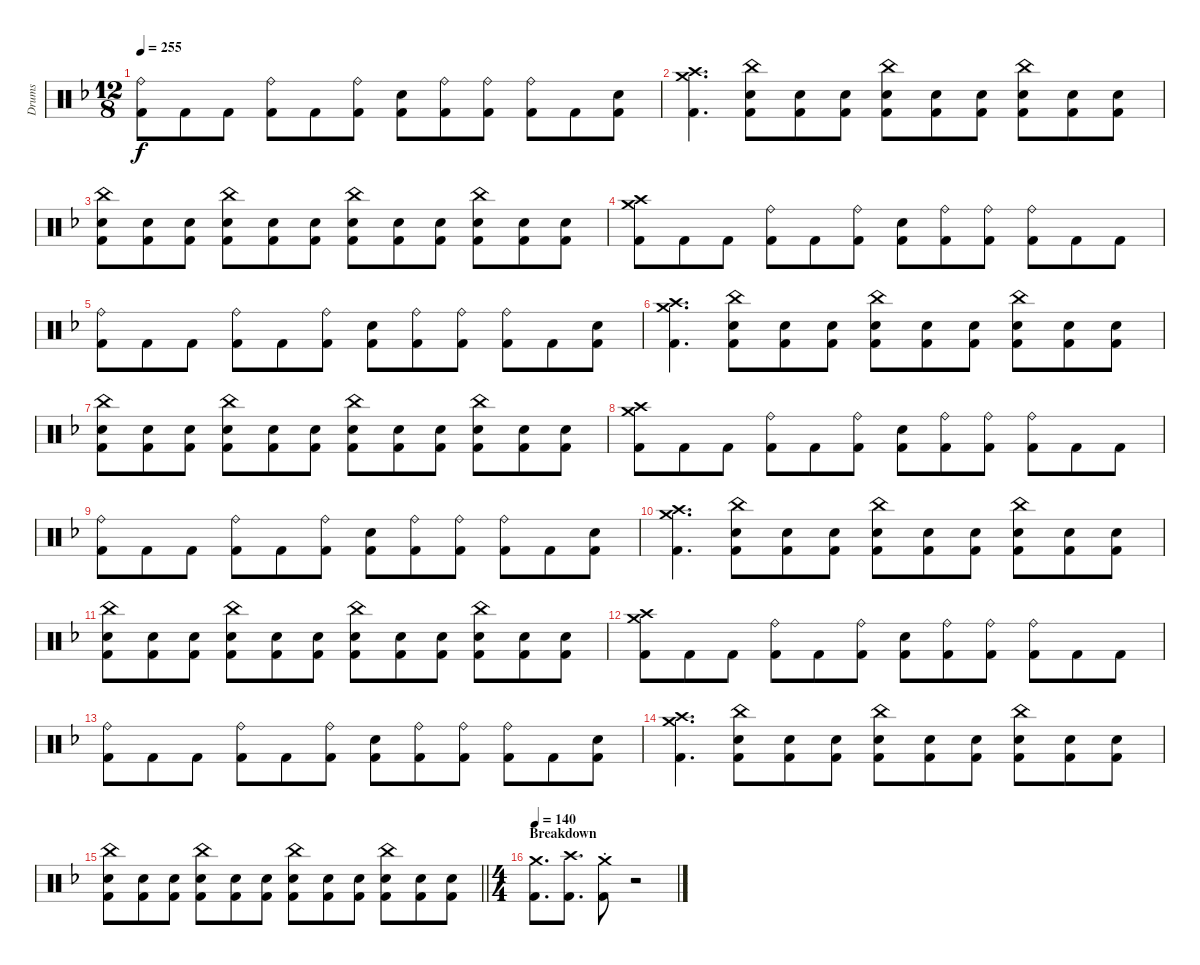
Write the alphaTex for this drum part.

\track ("Drums" "Drums") {instrument percussion}
\staff {score}
\articulation defaults
\ts (12 8)
\tempo 255
\clef neutral
\ks dminor
("Ride (bell)" "Kick (hit) 2").8{dy f} "Kick (hit) 2".8 "Kick (hit) 2".8 ("Ride (bell)" "Kick (hit) 2").8 "Kick (hit) 2".8 ("Ride (bell)" "Kick (hit) 2").8 ("Electric Snare (hit)" "Kick (hit) 2").8 ("Ride (bell)" "Kick (hit) 2").8 ("Ride (bell)" "Kick (hit) 2").8 ("Ride (bell)" "Kick (hit) 2").8 "Kick (hit) 2".8 ("Electric Snare (hit)" "Kick (hit) 2").8 |
("Crash medium (hit)" "Crash high (hit)" "Kick (hit) 2").4{d} ("China (hit)" "Electric Snare (hit)" "Kick (hit) 2").8 ("Electric Snare (hit)" "Kick (hit) 2").8 ("Electric Snare (hit)" "Kick (hit) 2").8 ("China (hit)" "Electric Snare (hit)" "Kick (hit) 2").8 ("Electric Snare (hit)" "Kick (hit) 2").8 ("Electric Snare (hit)" "Kick (hit) 2").8 ("China (hit)" "Electric Snare (hit)" "Kick (hit) 2").8 ("Electric Snare (hit)" "Kick (hit) 2").8 ("Electric Snare (hit)" "Kick (hit) 2").8 |
("China (hit)" "Electric Snare (hit)" "Kick (hit) 2").8 ("Electric Snare (hit)" "Kick (hit) 2").8 ("Electric Snare (hit)" "Kick (hit) 2").8 ("China (hit)" "Electric Snare (hit)" "Kick (hit) 2").8 ("Electric Snare (hit)" "Kick (hit) 2").8 ("Electric Snare (hit)" "Kick (hit) 2").8 ("China (hit)" "Electric Snare (hit)" "Kick (hit) 2").8 ("Electric Snare (hit)" "Kick (hit) 2").8 ("Electric Snare (hit)" "Kick (hit) 2").8 ("China (hit)" "Electric Snare (hit)" "Kick (hit) 2").8 ("Electric Snare (hit)" "Kick (hit) 2").8 ("Electric Snare (hit)" "Kick (hit) 2").8 |
("Crash medium (hit)" "Crash high (hit)" "Kick (hit) 2").8 "Kick (hit) 2".8 "Kick (hit) 2".8 ("Ride (bell)" "Kick (hit) 2").8 "Kick (hit) 2".8 ("Ride (bell)" "Kick (hit) 2").8 ("Electric Snare (hit)" "Kick (hit) 2").8 ("Ride (bell)" "Kick (hit) 2").8 ("Ride (bell)" "Kick (hit) 2").8 ("Ride (bell)" "Kick (hit) 2").8 "Kick (hit) 2".8 "Kick (hit) 2".8 |
("Ride (bell)" "Kick (hit) 2").8 "Kick (hit) 2".8 "Kick (hit) 2".8 ("Ride (bell)" "Kick (hit) 2").8 "Kick (hit) 2".8 ("Ride (bell)" "Kick (hit) 2").8 ("Electric Snare (hit)" "Kick (hit) 2").8 ("Ride (bell)" "Kick (hit) 2").8 ("Ride (bell)" "Kick (hit) 2").8 ("Ride (bell)" "Kick (hit) 2").8 "Kick (hit) 2".8 ("Electric Snare (hit)" "Kick (hit) 2").8 |
("Crash medium (hit)" "Crash high (hit)" "Kick (hit) 2").4{d} ("China (hit)" "Electric Snare (hit)" "Kick (hit) 2").8 ("Electric Snare (hit)" "Kick (hit) 2").8 ("Electric Snare (hit)" "Kick (hit) 2").8 ("China (hit)" "Electric Snare (hit)" "Kick (hit) 2").8 ("Electric Snare (hit)" "Kick (hit) 2").8 ("Electric Snare (hit)" "Kick (hit) 2").8 ("China (hit)" "Electric Snare (hit)" "Kick (hit) 2").8 ("Electric Snare (hit)" "Kick (hit) 2").8 ("Electric Snare (hit)" "Kick (hit) 2").8 |
("China (hit)" "Electric Snare (hit)" "Kick (hit) 2").8 ("Electric Snare (hit)" "Kick (hit) 2").8 ("Electric Snare (hit)" "Kick (hit) 2").8 ("China (hit)" "Electric Snare (hit)" "Kick (hit) 2").8 ("Electric Snare (hit)" "Kick (hit) 2").8 ("Electric Snare (hit)" "Kick (hit) 2").8 ("China (hit)" "Electric Snare (hit)" "Kick (hit) 2").8 ("Electric Snare (hit)" "Kick (hit) 2").8 ("Electric Snare (hit)" "Kick (hit) 2").8 ("China (hit)" "Electric Snare (hit)" "Kick (hit) 2").8 ("Electric Snare (hit)" "Kick (hit) 2").8 ("Electric Snare (hit)" "Kick (hit) 2").8 |
("Crash medium (hit)" "Crash high (hit)" "Kick (hit) 2").8 "Kick (hit) 2".8 "Kick (hit) 2".8 ("Ride (bell)" "Kick (hit) 2").8 "Kick (hit) 2".8 ("Ride (bell)" "Kick (hit) 2").8 ("Electric Snare (hit)" "Kick (hit) 2").8 ("Ride (bell)" "Kick (hit) 2").8 ("Ride (bell)" "Kick (hit) 2").8 ("Ride (bell)" "Kick (hit) 2").8 "Kick (hit) 2".8 "Kick (hit) 2".8 |
("Ride (bell)" "Kick (hit) 2").8 "Kick (hit) 2".8 "Kick (hit) 2".8 ("Ride (bell)" "Kick (hit) 2").8 "Kick (hit) 2".8 ("Ride (bell)" "Kick (hit) 2").8 ("Electric Snare (hit)" "Kick (hit) 2").8 ("Ride (bell)" "Kick (hit) 2").8 ("Ride (bell)" "Kick (hit) 2").8 ("Ride (bell)" "Kick (hit) 2").8 "Kick (hit) 2".8 ("Electric Snare (hit)" "Kick (hit) 2").8 |
("Crash medium (hit)" "Crash high (hit)" "Kick (hit) 2").4{d} ("China (hit)" "Electric Snare (hit)" "Kick (hit) 2").8 ("Electric Snare (hit)" "Kick (hit) 2").8 ("Electric Snare (hit)" "Kick (hit) 2").8 ("China (hit)" "Electric Snare (hit)" "Kick (hit) 2").8 ("Electric Snare (hit)" "Kick (hit) 2").8 ("Electric Snare (hit)" "Kick (hit) 2").8 ("China (hit)" "Electric Snare (hit)" "Kick (hit) 2").8 ("Electric Snare (hit)" "Kick (hit) 2").8 ("Electric Snare (hit)" "Kick (hit) 2").8 |
("China (hit)" "Electric Snare (hit)" "Kick (hit) 2").8 ("Electric Snare (hit)" "Kick (hit) 2").8 ("Electric Snare (hit)" "Kick (hit) 2").8 ("China (hit)" "Electric Snare (hit)" "Kick (hit) 2").8 ("Electric Snare (hit)" "Kick (hit) 2").8 ("Electric Snare (hit)" "Kick (hit) 2").8 ("China (hit)" "Electric Snare (hit)" "Kick (hit) 2").8 ("Electric Snare (hit)" "Kick (hit) 2").8 ("Electric Snare (hit)" "Kick (hit) 2").8 ("China (hit)" "Electric Snare (hit)" "Kick (hit) 2").8 ("Electric Snare (hit)" "Kick (hit) 2").8 ("Electric Snare (hit)" "Kick (hit) 2").8 |
("Crash medium (hit)" "Crash high (hit)" "Kick (hit) 2").8 "Kick (hit) 2".8 "Kick (hit) 2".8 ("Ride (bell)" "Kick (hit) 2").8 "Kick (hit) 2".8 ("Ride (bell)" "Kick (hit) 2").8 ("Electric Snare (hit)" "Kick (hit) 2").8 ("Ride (bell)" "Kick (hit) 2").8 ("Ride (bell)" "Kick (hit) 2").8 ("Ride (bell)" "Kick (hit) 2").8 "Kick (hit) 2".8 "Kick (hit) 2".8 |
("Ride (bell)" "Kick (hit) 2").8 "Kick (hit) 2".8 "Kick (hit) 2".8 ("Ride (bell)" "Kick (hit) 2").8 "Kick (hit) 2".8 ("Ride (bell)" "Kick (hit) 2").8 ("Electric Snare (hit)" "Kick (hit) 2").8 ("Ride (bell)" "Kick (hit) 2").8 ("Ride (bell)" "Kick (hit) 2").8 ("Ride (bell)" "Kick (hit) 2").8 "Kick (hit) 2".8 ("Electric Snare (hit)" "Kick (hit) 2").8 |
("Crash medium (hit)" "Crash high (hit)" "Kick (hit) 2").4{d} ("China (hit)" "Electric Snare (hit)" "Kick (hit) 2").8 ("Electric Snare (hit)" "Kick (hit) 2").8 ("Electric Snare (hit)" "Kick (hit) 2").8 ("China (hit)" "Electric Snare (hit)" "Kick (hit) 2").8 ("Electric Snare (hit)" "Kick (hit) 2").8 ("Electric Snare (hit)" "Kick (hit) 2").8 ("China (hit)" "Electric Snare (hit)" "Kick (hit) 2").8 ("Electric Snare (hit)" "Kick (hit) 2").8 ("Electric Snare (hit)" "Kick (hit) 2").8 |
\barLineRight lightlight
("China (hit)" "Electric Snare (hit)" "Kick (hit) 2").8 ("Electric Snare (hit)" "Kick (hit) 2").8 ("Electric Snare (hit)" "Kick (hit) 2").8 ("China (hit)" "Electric Snare (hit)" "Kick (hit) 2").8 ("Electric Snare (hit)" "Kick (hit) 2").8 ("Electric Snare (hit)" "Kick (hit) 2").8 ("China (hit)" "Electric Snare (hit)" "Kick (hit) 2").8 ("Electric Snare (hit)" "Kick (hit) 2").8 ("Electric Snare (hit)" "Kick (hit) 2").8 ("China (hit)" "Electric Snare (hit)" "Kick (hit) 2").8 ("Electric Snare (hit)" "Kick (hit) 2").8 ("Electric Snare (hit)" "Kick (hit) 2").8 |
\ts (4 4)
\section ("" "Breakdown")
\tempo 140
("Crash medium (hit)" "Kick (hit) 2").8{d} ("Crash high (hit)" "Kick (hit) 2").8{d} ("Crash medium (hit)"{st} "Kick (hit) 2").8 r.2{volume 0}
